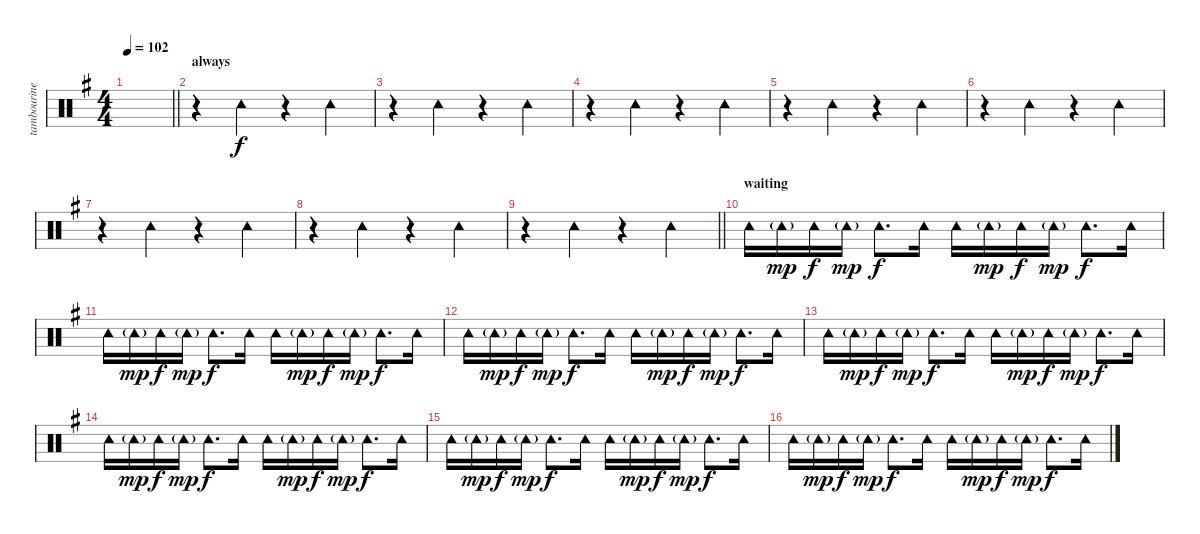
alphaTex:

\track ("tambourine" "tambourine") {instrument percussion}
\staff {score}
\articulation defaults
\ts (4 4)
\tempo 102
\clef neutral
\barLineRight lightlight
\ks eminor
|
\section ("" "always")
r.4 "Tambourine (hit)".4 r.4 "Tambourine (hit)".4 |
r.4 "Tambourine (hit)".4 r.4 "Tambourine (hit)".4 |
r.4 "Tambourine (hit)".4 r.4 "Tambourine (hit)".4 |
r.4 "Tambourine (hit)".4 r.4 "Tambourine (hit)".4 |
r.4 "Tambourine (hit)".4 r.4 "Tambourine (hit)".4 |
r.4 "Tambourine (hit)".4 r.4 "Tambourine (hit)".4 |
r.4 "Tambourine (hit)".4 r.4 "Tambourine (hit)".4 |
\barLineRight lightlight
r.4 "Tambourine (hit)".4 r.4 "Tambourine (hit)".4 |
\section ("" "waiting")
"Tambourine (hit)".16 "Tambourine (hit)"{g}.16{dy mp} "Tambourine (hit)".16{dy f} "Tambourine (hit)"{g}.16{dy mp} "Tambourine (hit)".8{d dy f} "Tambourine (hit)".16 "Tambourine (hit)".16 "Tambourine (hit)"{g}.16{dy mp} "Tambourine (hit)".16{dy f} "Tambourine (hit)"{g}.16{dy mp} "Tambourine (hit)".8{d dy f} "Tambourine (hit)".16 |
"Tambourine (hit)".16 "Tambourine (hit)"{g}.16{dy mp} "Tambourine (hit)".16{dy f} "Tambourine (hit)"{g}.16{dy mp} "Tambourine (hit)".8{d dy f} "Tambourine (hit)".16 "Tambourine (hit)".16 "Tambourine (hit)"{g}.16{dy mp} "Tambourine (hit)".16{dy f} "Tambourine (hit)"{g}.16{dy mp} "Tambourine (hit)".8{d dy f} "Tambourine (hit)".16 |
"Tambourine (hit)".16 "Tambourine (hit)"{g}.16{dy mp} "Tambourine (hit)".16{dy f} "Tambourine (hit)"{g}.16{dy mp} "Tambourine (hit)".8{d dy f} "Tambourine (hit)".16 "Tambourine (hit)".16 "Tambourine (hit)"{g}.16{dy mp} "Tambourine (hit)".16{dy f} "Tambourine (hit)"{g}.16{dy mp} "Tambourine (hit)".8{d dy f} "Tambourine (hit)".16 |
"Tambourine (hit)".16 "Tambourine (hit)"{g}.16{dy mp} "Tambourine (hit)".16{dy f} "Tambourine (hit)"{g}.16{dy mp} "Tambourine (hit)".8{d dy f} "Tambourine (hit)".16 "Tambourine (hit)".16 "Tambourine (hit)"{g}.16{dy mp} "Tambourine (hit)".16{dy f} "Tambourine (hit)"{g}.16{dy mp} "Tambourine (hit)".8{d dy f} "Tambourine (hit)".16 |
"Tambourine (hit)".16 "Tambourine (hit)"{g}.16{dy mp} "Tambourine (hit)".16{dy f} "Tambourine (hit)"{g}.16{dy mp} "Tambourine (hit)".8{d dy f} "Tambourine (hit)".16 "Tambourine (hit)".16 "Tambourine (hit)"{g}.16{dy mp} "Tambourine (hit)".16{dy f} "Tambourine (hit)"{g}.16{dy mp} "Tambourine (hit)".8{d dy f} "Tambourine (hit)".16 |
"Tambourine (hit)".16 "Tambourine (hit)"{g}.16{dy mp} "Tambourine (hit)".16{dy f} "Tambourine (hit)"{g}.16{dy mp} "Tambourine (hit)".8{d dy f} "Tambourine (hit)".16 "Tambourine (hit)".16 "Tambourine (hit)"{g}.16{dy mp} "Tambourine (hit)".16{dy f} "Tambourine (hit)"{g}.16{dy mp} "Tambourine (hit)".8{d dy f} "Tambourine (hit)".16 |
"Tambourine (hit)".16 "Tambourine (hit)"{g}.16{dy mp} "Tambourine (hit)".16{dy f} "Tambourine (hit)"{g}.16{dy mp} "Tambourine (hit)".8{d dy f} "Tambourine (hit)".16 "Tambourine (hit)".16 "Tambourine (hit)"{g}.16{dy mp} "Tambourine (hit)".16{dy f} "Tambourine (hit)"{g}.16{dy mp} "Tambourine (hit)".8{d dy f} "Tambourine (hit)".16
